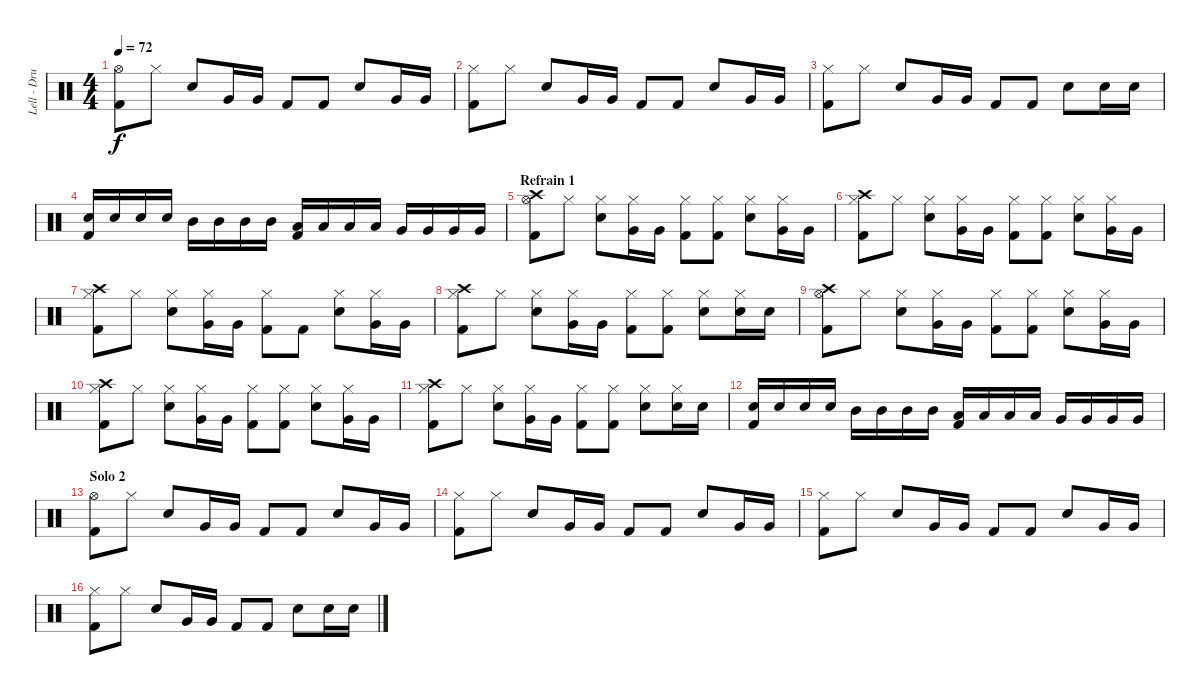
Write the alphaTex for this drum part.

\track ("Lell - Drums" "Lell - Dru") {instrument percussion}
\staff {score}
\articulation defaults
\ts (4 4)
\tempo 72
\clef neutral
\ks c
("Hi-Hat (open)" "Kick (hit) 2").8{dy f} "Hi-Hat (closed)".8 "Snare (hit) 2".8 "Very Low Tom (hit)".16 "Very Low Tom (hit)".16 "Kick (hit) 2".8 "Kick (hit) 2".8 "Snare (hit) 2".8 "Very Low Tom (hit)".16 "Very Low Tom (hit)".16 |
("Hi-Hat (closed)" "Kick (hit) 2").8 "Hi-Hat (closed)".8 "Snare (hit) 2".8 "Very Low Tom (hit)".16 "Very Low Tom (hit)".16 "Kick (hit) 2".8 "Kick (hit) 2".8 "Snare (hit) 2".8 "Very Low Tom (hit)".16 "Very Low Tom (hit)".16 |
("Hi-Hat (closed)" "Kick (hit) 2").8 "Hi-Hat (closed)".8 "Snare (hit) 2".8 "Very Low Tom (hit)".16 "Very Low Tom (hit)".16 "Kick (hit) 2".8 "Kick (hit) 2".8 "Snare (hit) 2".8 "Snare (hit) 2".16 "Snare (hit) 2".16 |
("Snare (hit) 2" "Kick (hit) 2").16 "Snare (hit) 2".16 "Snare (hit) 2".16 "Snare (hit) 2".16 "Mid Tom (hit)".16 "Mid Tom (hit)".16 "Mid Tom (hit)".16 "Mid Tom (hit)".16 ("Low Tom (hit)" "Kick (hit) 2").16 "Low Tom (hit)".16 "Low Tom (hit)".16 "Low Tom (hit)".16 "Very Low Tom (hit)".16 "Very Low Tom (hit)".16 "Very Low Tom (hit)".16 "Very Low Tom (hit)".16 |
\section ("" "Refrain 1")
("Crash high (hit)" "Hi-Hat (open)" "Kick (hit) 2").8 "Hi-Hat (closed)".8 ("Hi-Hat (closed)" "Snare (hit) 2").8 ("Hi-Hat (closed)" "Very Low Tom (hit)").16 "Very Low Tom (hit)".16 ("Hi-Hat (closed)" "Kick (hit) 2").8 ("Hi-Hat (closed)" "Kick (hit) 2").8 ("Hi-Hat (closed)" "Snare (hit) 2").8 ("Hi-Hat (closed)" "Very Low Tom (hit)").16 "Very Low Tom (hit)".16 |
("Crash high (hit)" "Hi-Hat (closed)" "Kick (hit) 2").8 "Hi-Hat (closed)".8 ("Hi-Hat (closed)" "Snare (hit) 2").8 ("Hi-Hat (closed)" "Very Low Tom (hit)").16 "Very Low Tom (hit)".16 ("Hi-Hat (closed)" "Kick (hit) 2").8 ("Hi-Hat (closed)" "Kick (hit) 2").8 ("Hi-Hat (closed)" "Snare (hit) 2").8 ("Hi-Hat (closed)" "Very Low Tom (hit)").16 "Very Low Tom (hit)".16 |
("Crash high (hit)" "Hi-Hat (closed)" "Kick (hit) 2").8 "Hi-Hat (closed)".8 ("Hi-Hat (closed)" "Snare (hit) 2").8 ("Hi-Hat (closed)" "Very Low Tom (hit)").16 "Very Low Tom (hit)".16 ("Hi-Hat (closed)" "Kick (hit) 2").8 "Kick (hit) 2".8 ("Hi-Hat (closed)" "Snare (hit) 2").8 ("Hi-Hat (closed)" "Very Low Tom (hit)").16 "Very Low Tom (hit)".16 |
("Crash high (hit)" "Hi-Hat (closed)" "Kick (hit) 2").8 "Hi-Hat (closed)".8 ("Hi-Hat (closed)" "Snare (hit) 2").8 ("Hi-Hat (closed)" "Very Low Tom (hit)").16 "Very Low Tom (hit)".16 ("Hi-Hat (closed)" "Kick (hit) 2").8 ("Hi-Hat (closed)" "Kick (hit) 2").8 ("Hi-Hat (closed)" "Snare (hit) 2").8 ("Hi-Hat (closed)" "Snare (hit) 2").16 "Snare (hit) 2".16 |
("Crash high (hit)" "Hi-Hat (open)" "Kick (hit) 2").8 "Hi-Hat (closed)".8 ("Hi-Hat (closed)" "Snare (hit) 2").8 ("Hi-Hat (closed)" "Very Low Tom (hit)").16 "Very Low Tom (hit)".16 ("Hi-Hat (closed)" "Kick (hit) 2").8 ("Hi-Hat (closed)" "Kick (hit) 2").8 ("Hi-Hat (closed)" "Snare (hit) 2").8 ("Hi-Hat (closed)" "Very Low Tom (hit)").16 "Very Low Tom (hit)".16 |
("Crash high (hit)" "Hi-Hat (closed)" "Kick (hit) 2").8 "Hi-Hat (closed)".8 ("Hi-Hat (closed)" "Snare (hit) 2").8 ("Hi-Hat (closed)" "Very Low Tom (hit)").16 "Very Low Tom (hit)".16 ("Hi-Hat (closed)" "Kick (hit) 2").8 ("Hi-Hat (closed)" "Kick (hit) 2").8 ("Hi-Hat (closed)" "Snare (hit) 2").8 ("Hi-Hat (closed)" "Very Low Tom (hit)").16 "Very Low Tom (hit)".16 |
("Crash high (hit)" "Hi-Hat (closed)" "Kick (hit) 2").8 "Hi-Hat (closed)".8 ("Hi-Hat (closed)" "Snare (hit) 2").8 ("Hi-Hat (closed)" "Very Low Tom (hit)").16 "Very Low Tom (hit)".16 ("Hi-Hat (closed)" "Kick (hit) 2").8 ("Hi-Hat (closed)" "Kick (hit) 2").8 ("Hi-Hat (closed)" "Snare (hit) 2").8 ("Hi-Hat (closed)" "Snare (hit) 2").16 "Snare (hit) 2".16 |
("Snare (hit) 2" "Kick (hit) 2").16 "Snare (hit) 2".16 "Snare (hit) 2".16 "Snare (hit) 2".16 "Mid Tom (hit)".16 "Mid Tom (hit)".16 "Mid Tom (hit)".16 "Mid Tom (hit)".16 ("Low Tom (hit)" "Kick (hit) 2").16 "Low Tom (hit)".16 "Low Tom (hit)".16 "Low Tom (hit)".16 "Very Low Tom (hit)".16 "Very Low Tom (hit)".16 "Very Low Tom (hit)".16 "Very Low Tom (hit)".16 |
\section ("" "Solo 2")
("Hi-Hat (open)" "Kick (hit) 2").8 "Hi-Hat (closed)".8 "Snare (hit) 2".8 "Very Low Tom (hit)".16 "Very Low Tom (hit)".16 "Kick (hit) 2".8 "Kick (hit) 2".8 "Snare (hit) 2".8 "Very Low Tom (hit)".16 "Very Low Tom (hit)".16 |
("Hi-Hat (closed)" "Kick (hit) 2").8 "Hi-Hat (closed)".8 "Snare (hit) 2".8 "Very Low Tom (hit)".16 "Very Low Tom (hit)".16 "Kick (hit) 2".8 "Kick (hit) 2".8 "Snare (hit) 2".8 "Very Low Tom (hit)".16 "Very Low Tom (hit)".16 |
("Hi-Hat (closed)" "Kick (hit) 2").8 "Hi-Hat (closed)".8 "Snare (hit) 2".8 "Very Low Tom (hit)".16 "Very Low Tom (hit)".16 "Kick (hit) 2".8 "Kick (hit) 2".8 "Snare (hit) 2".8 "Very Low Tom (hit)".16 "Very Low Tom (hit)".16 |
("Hi-Hat (closed)" "Kick (hit) 2").8 "Hi-Hat (closed)".8 "Snare (hit) 2".8 "Very Low Tom (hit)".16 "Very Low Tom (hit)".16 "Kick (hit) 2".8 "Kick (hit) 2".8 "Snare (hit) 2".8 "Snare (hit) 2".16 "Snare (hit) 2".16
